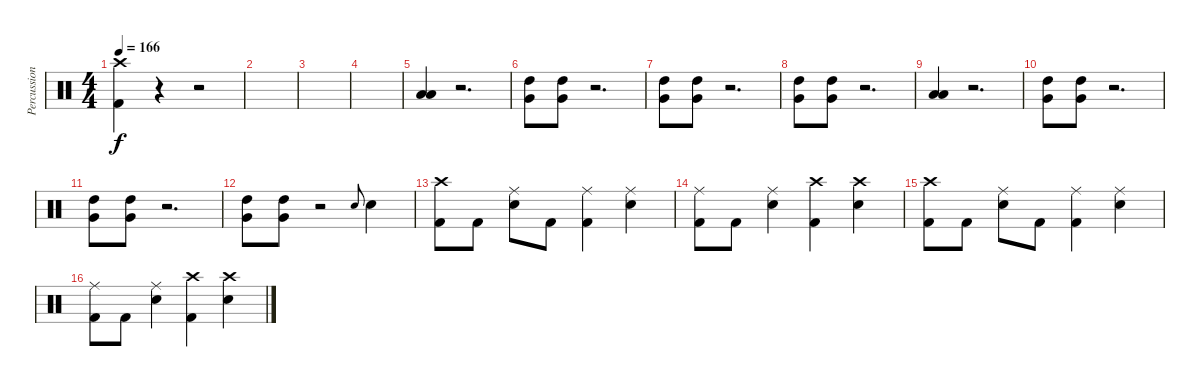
\track ("Percussion" "Percussion") {solo instrument percussion}
\staff {score}
\articulation defaults
\ts (4 4)
\tempo 166
\clef neutral
\ks aminor
("Crash high (hit)" "Kick (hit) 2").4{dy f} r.4 r.2 |
|
|
|
("Low Tom (hit)" "Low Floor Tom (hit)").4 r.2{d} |
("High Tom (hit)" "Very Low Tom (hit)").8 ("High Tom (hit)" "Very Low Tom (hit)").8 r.2{d} |
("Very Low Tom (hit)" "High Tom (hit)").8 ("Very Low Tom (hit)" "High Tom (hit)").8 r.2{d} |
("Very Low Tom (hit)" "High Tom (hit)").8 ("Very Low Tom (hit)" "High Tom (hit)").8 r.2{d} |
("Low Tom (hit)" "Low Floor Tom (hit)").4 r.2{d} |
("Very Low Tom (hit)" "High Tom (hit)").8 ("Very Low Tom (hit)" "High Tom (hit)").8 r.2{d} |
("Very Low Tom (hit)" "High Tom (hit)").8 ("Very Low Tom (hit)" "High Tom (hit)").8 r.2{d} |
("Very Low Tom (hit)" "High Tom (hit)").8 ("Very Low Tom (hit)" "High Tom (hit)").8 r.2 "Snare (hit) 2".8{gr onbeat} "Snare (hit) 2".4 |
("Crash high (hit)" "Kick (hit) 2").8 "Kick (hit) 2".8 ("Snare (hit) 2" "Ride (middle)").8 "Kick (hit) 2".8 ("Ride (middle)" "Kick (hit) 2").4 ("Snare (hit) 2" "Ride (middle)").4 |
("Ride (middle)" "Kick (hit) 2").8 "Kick (hit) 2".8 ("Snare (hit) 2" "Ride (middle)").4 ("Crash high (hit)" "Kick (hit) 2").4 ("Snare (hit) 2" "Crash high (hit)").4 |
("Crash high (hit)" "Kick (hit) 2").8 "Kick (hit) 2".8 ("Snare (hit) 2" "Ride (middle)").8 "Kick (hit) 2".8 ("Ride (middle)" "Kick (hit) 2").4 ("Snare (hit) 2" "Ride (middle)").4 |
("Ride (middle)" "Kick (hit) 2").8 "Kick (hit) 2".8 ("Snare (hit) 2" "Ride (middle)").4 ("Crash high (hit)" "Kick (hit) 2").4 ("Snare (hit) 2" "Crash high (hit)").4
